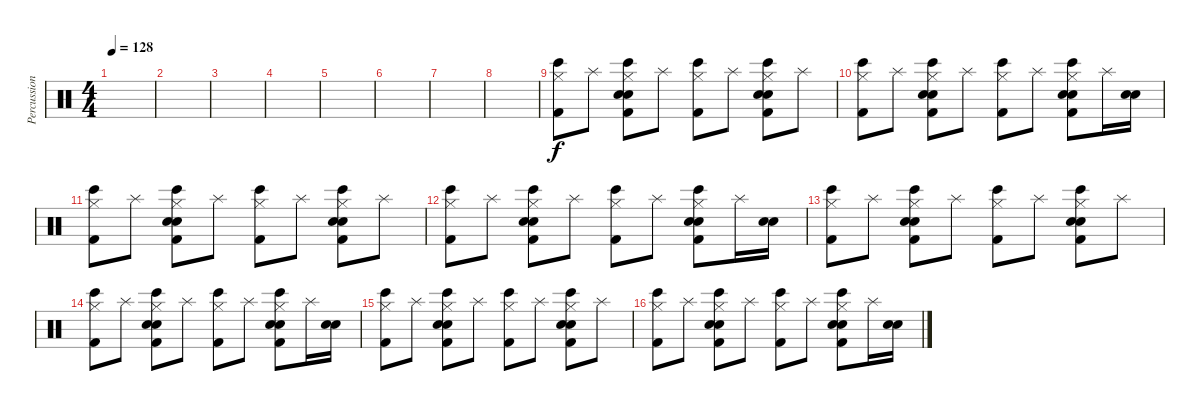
\track ("Percussion" "Percussion") {instrument percussion}
\staff {score}
\articulation defaults
\ts (4 4)
\tempo 128
\clef neutral
\ks c
|
|
|
|
|
|
|
|
("Hi-Hat (closed)" "Bongo High (hit)" "Kick (hit) 2").8 "Splash (hit)".8 ("Hi-Hat (closed)" "Bongo High (hit)" "Hand Clap (hit)" "Electric Snare (hit)" "Kick (hit) 2").8 "Splash (hit)".8 ("Hi-Hat (closed)" "Bongo High (hit)" "Kick (hit) 2").8 "Splash (hit)".8 ("Hi-Hat (closed)" "Bongo High (hit)" "Hand Clap (hit)" "Electric Snare (hit)" "Kick (hit) 2").8 "Splash (hit)".8 |
("Hi-Hat (closed)" "Bongo High (hit)" "Kick (hit) 2").8 "Splash (hit)".8 ("Hi-Hat (closed)" "Bongo High (hit)" "Hand Clap (hit)" "Electric Snare (hit)" "Kick (hit) 2").8 "Splash (hit)".8 ("Hi-Hat (closed)" "Bongo High (hit)" "Kick (hit) 2").8 "Splash (hit)".8 ("Hi-Hat (closed)" "Bongo High (hit)" "Hand Clap (hit)" "Electric Snare (hit)" "Kick (hit) 2").8 "Splash (hit)".16 ("Hand Clap (hit)" "Electric Snare (hit)").16 |
("Hi-Hat (closed)" "Bongo High (hit)" "Kick (hit) 2").8 "Splash (hit)".8 ("Hi-Hat (closed)" "Bongo High (hit)" "Hand Clap (hit)" "Electric Snare (hit)" "Kick (hit) 2").8 "Splash (hit)".8 ("Hi-Hat (closed)" "Bongo High (hit)" "Kick (hit) 2").8 "Splash (hit)".8 ("Hi-Hat (closed)" "Bongo High (hit)" "Hand Clap (hit)" "Electric Snare (hit)" "Kick (hit) 2").8 "Splash (hit)".8 |
("Hi-Hat (closed)" "Bongo High (hit)" "Kick (hit) 2").8 "Splash (hit)".8 ("Hi-Hat (closed)" "Bongo High (hit)" "Hand Clap (hit)" "Electric Snare (hit)" "Kick (hit) 2").8 "Splash (hit)".8 ("Hi-Hat (closed)" "Bongo High (hit)" "Kick (hit) 2").8 "Splash (hit)".8 ("Hi-Hat (closed)" "Bongo High (hit)" "Hand Clap (hit)" "Electric Snare (hit)" "Kick (hit) 2").8 "Splash (hit)".16 ("Hand Clap (hit)" "Electric Snare (hit)").16 |
("Hi-Hat (closed)" "Bongo High (hit)" "Kick (hit) 2").8 "Splash (hit)".8 ("Hi-Hat (closed)" "Bongo High (hit)" "Hand Clap (hit)" "Electric Snare (hit)" "Kick (hit) 2").8 "Splash (hit)".8 ("Hi-Hat (closed)" "Bongo High (hit)" "Kick (hit) 2").8 "Splash (hit)".8 ("Hi-Hat (closed)" "Bongo High (hit)" "Hand Clap (hit)" "Electric Snare (hit)" "Kick (hit) 2").8 "Splash (hit)".8 |
("Hi-Hat (closed)" "Bongo High (hit)" "Kick (hit) 2").8 "Splash (hit)".8 ("Hi-Hat (closed)" "Bongo High (hit)" "Hand Clap (hit)" "Electric Snare (hit)" "Kick (hit) 2").8 "Splash (hit)".8 ("Hi-Hat (closed)" "Bongo High (hit)" "Kick (hit) 2").8 "Splash (hit)".8 ("Hi-Hat (closed)" "Bongo High (hit)" "Hand Clap (hit)" "Electric Snare (hit)" "Kick (hit) 2").8 "Splash (hit)".16 ("Hand Clap (hit)" "Electric Snare (hit)").16 |
("Hi-Hat (closed)" "Bongo High (hit)" "Kick (hit) 2").8 "Splash (hit)".8 ("Hi-Hat (closed)" "Bongo High (hit)" "Hand Clap (hit)" "Electric Snare (hit)" "Kick (hit) 2").8 "Splash (hit)".8 ("Hi-Hat (closed)" "Bongo High (hit)" "Kick (hit) 2").8 "Splash (hit)".8 ("Hi-Hat (closed)" "Bongo High (hit)" "Hand Clap (hit)" "Electric Snare (hit)" "Kick (hit) 2").8 "Splash (hit)".8 |
("Hi-Hat (closed)" "Bongo High (hit)" "Kick (hit) 2").8 "Splash (hit)".8 ("Hi-Hat (closed)" "Bongo High (hit)" "Hand Clap (hit)" "Electric Snare (hit)" "Kick (hit) 2").8 "Splash (hit)".8 ("Hi-Hat (closed)" "Bongo High (hit)" "Kick (hit) 2").8 "Splash (hit)".8 ("Hi-Hat (closed)" "Bongo High (hit)" "Hand Clap (hit)" "Electric Snare (hit)" "Kick (hit) 2").8 "Splash (hit)".16 ("Hand Clap (hit)" "Electric Snare (hit)").16
